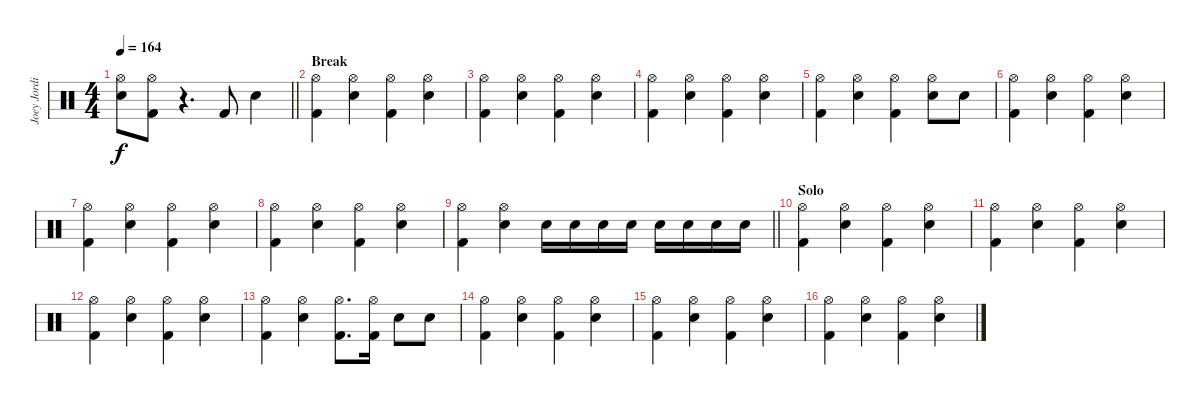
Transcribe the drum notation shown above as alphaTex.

\track ("Joey Jordison III" "Joey Jordi") {instrument percussion}
\staff {score}
\articulation defaults
\ts (4 4)
\tempo 164
\clef neutral
\barLineRight lightlight
\ks c
("Hi-Hat (open)" "Electric Snare (hit)").8{dy f} ("Hi-Hat (open)" "Kick (hit) 2").8 r.4{d} "Kick (hit) 2".8 "Electric Snare (hit)".4 |
\section ("" "Break")
("Hi-Hat (open)" "Kick (hit) 2").4 ("Hi-Hat (open)" "Electric Snare (hit)").4 ("Hi-Hat (open)" "Kick (hit) 2").4 ("Hi-Hat (open)" "Electric Snare (hit)").4 |
("Hi-Hat (open)" "Kick (hit) 2").4 ("Hi-Hat (open)" "Electric Snare (hit)").4 ("Hi-Hat (open)" "Kick (hit) 2").4 ("Hi-Hat (open)" "Electric Snare (hit)").4 |
("Hi-Hat (open)" "Kick (hit) 2").4 ("Hi-Hat (open)" "Electric Snare (hit)").4 ("Hi-Hat (open)" "Kick (hit) 2").4 ("Hi-Hat (open)" "Electric Snare (hit)").4 |
("Hi-Hat (open)" "Kick (hit) 2").4 ("Hi-Hat (open)" "Electric Snare (hit)").4 ("Hi-Hat (open)" "Kick (hit) 2").4 ("Hi-Hat (open)" "Electric Snare (hit)").8 "Electric Snare (hit)".8 |
("Hi-Hat (open)" "Kick (hit) 2").4 ("Hi-Hat (open)" "Electric Snare (hit)").4 ("Hi-Hat (open)" "Kick (hit) 2").4 ("Hi-Hat (open)" "Electric Snare (hit)").4 |
("Hi-Hat (open)" "Kick (hit) 2").4 ("Hi-Hat (open)" "Electric Snare (hit)").4 ("Hi-Hat (open)" "Kick (hit) 2").4 ("Hi-Hat (open)" "Electric Snare (hit)").4 |
("Hi-Hat (open)" "Kick (hit) 2").4 ("Hi-Hat (open)" "Electric Snare (hit)").4 ("Hi-Hat (open)" "Kick (hit) 2").4 ("Hi-Hat (open)" "Electric Snare (hit)").4 |
\barLineRight lightlight
("Hi-Hat (open)" "Kick (hit) 2").4 ("Hi-Hat (open)" "Electric Snare (hit)").4 "Electric Snare (hit)".16 "Electric Snare (hit)".16 "Electric Snare (hit)".16 "Electric Snare (hit)".16 "Electric Snare (hit)".16 "Electric Snare (hit)".16 "Electric Snare (hit)".16 "Electric Snare (hit)".16 |
\section ("" "Solo")
("Hi-Hat (open)" "Kick (hit) 2").4 ("Hi-Hat (open)" "Electric Snare (hit)").4 ("Hi-Hat (open)" "Kick (hit) 2").4 ("Hi-Hat (open)" "Electric Snare (hit)").4 |
("Hi-Hat (open)" "Kick (hit) 2").4 ("Hi-Hat (open)" "Electric Snare (hit)").4 ("Hi-Hat (open)" "Kick (hit) 2").4 ("Hi-Hat (open)" "Electric Snare (hit)").4 |
("Hi-Hat (open)" "Kick (hit) 2").4 ("Hi-Hat (open)" "Electric Snare (hit)").4 ("Hi-Hat (open)" "Kick (hit) 2").4 ("Hi-Hat (open)" "Electric Snare (hit)").4 |
("Hi-Hat (open)" "Kick (hit) 2").4 ("Hi-Hat (open)" "Electric Snare (hit)").4 ("Hi-Hat (open)" "Kick (hit) 2").8{d} ("Hi-Hat (open)" "Kick (hit) 2").16 "Electric Snare (hit)".8 "Electric Snare (hit)".8 |
("Hi-Hat (open)" "Kick (hit) 2").4 ("Hi-Hat (open)" "Electric Snare (hit)").4 ("Hi-Hat (open)" "Kick (hit) 2").4 ("Hi-Hat (open)" "Electric Snare (hit)").4 |
("Hi-Hat (open)" "Kick (hit) 2").4 ("Hi-Hat (open)" "Electric Snare (hit)").4 ("Hi-Hat (open)" "Kick (hit) 2").4 ("Hi-Hat (open)" "Electric Snare (hit)").4 |
("Hi-Hat (open)" "Kick (hit) 2").4 ("Hi-Hat (open)" "Electric Snare (hit)").4 ("Hi-Hat (open)" "Kick (hit) 2").4 ("Hi-Hat (open)" "Electric Snare (hit)").4
